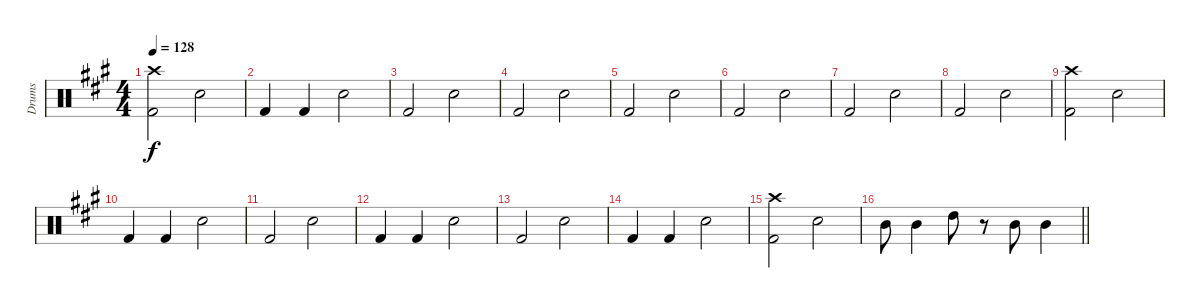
\track ("Drums" "Drums") {instrument percussion}
\staff {score}
\articulation defaults
\ts (4 4)
\tempo 128
\clef neutral
\ks f#minor
("Crash high (hit)" "Kick (hit) 2").2{dy f} "Electric Snare (hit)".2 |
"Kick (hit) 2".4 "Kick (hit) 2".4 "Electric Snare (hit)".2 |
"Kick (hit) 2".2 "Electric Snare (hit)".2 |
"Kick (hit) 2".2 "Electric Snare (hit)".2 |
"Kick (hit) 2".2 "Electric Snare (hit)".2 |
"Kick (hit) 2".2 "Electric Snare (hit)".2 |
"Kick (hit) 2".2 "Electric Snare (hit)".2 |
"Kick (hit) 2".2 "Electric Snare (hit)".2 |
("Crash high (hit)" "Kick (hit) 2").2 "Electric Snare (hit)".2 |
"Kick (hit) 2".4 "Kick (hit) 2".4 "Electric Snare (hit)".2 |
"Kick (hit) 2".2 "Electric Snare (hit)".2 |
"Kick (hit) 2".4 "Kick (hit) 2".4 "Electric Snare (hit)".2 |
"Kick (hit) 2".2 "Electric Snare (hit)".2 |
"Kick (hit) 2".4 "Kick (hit) 2".4 "Electric Snare (hit)".2 |
("Crash high (hit)" "Kick (hit) 2").2 "Electric Snare (hit)".2 |
\barLineRight lightlight "Mid Tom (hit)".8 "Mid Tom (hit)".4 "High Tom (hit)".8
r.8 "Mid Tom (hit)".8 "Mid Tom (hit)".4
